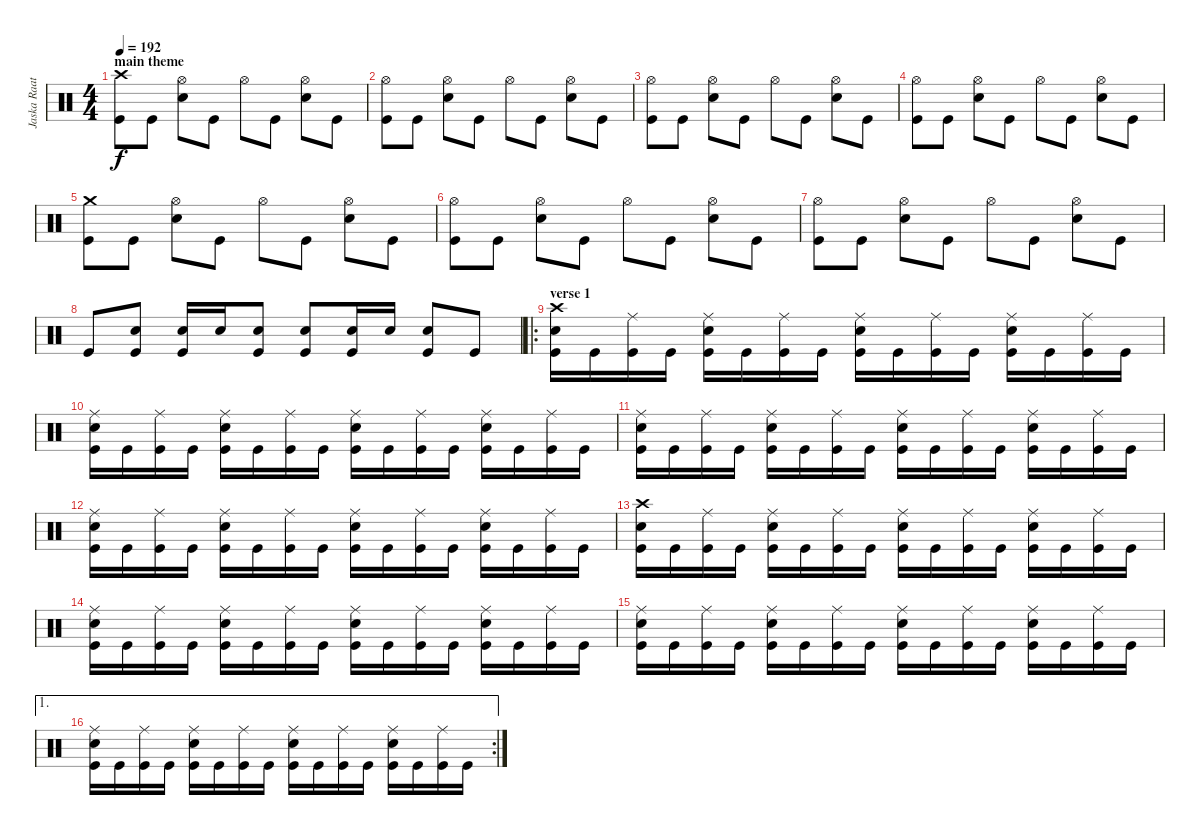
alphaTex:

\track ("Jaska Raatikainen" "Jaska Raat") {instrument percussion}
\staff {score}
\articulation defaults
\ts (4 4)
\section ("" "main theme")
\tempo 192
\clef neutral
\ks c
("Crash high (hit)" "Kick (hit)").8{dy f} "Kick (hit)".8 ("Hi-Hat (open)" "Electric Snare (hit)").8 "Kick (hit)".8 "Hi-Hat (open)".8 "Kick (hit)".8 ("Hi-Hat (open)" "Electric Snare (hit)").8 "Kick (hit)".8 |
("Hi-Hat (open)" "Kick (hit)").8 "Kick (hit)".8 ("Hi-Hat (open)" "Electric Snare (hit)").8 "Kick (hit)".8 "Hi-Hat (open)".8 "Kick (hit)".8 ("Hi-Hat (open)" "Electric Snare (hit)").8 "Kick (hit)".8 |
("Hi-Hat (open)" "Kick (hit)").8 "Kick (hit)".8 ("Hi-Hat (open)" "Electric Snare (hit)").8 "Kick (hit)".8 "Hi-Hat (open)".8 "Kick (hit)".8 ("Hi-Hat (open)" "Electric Snare (hit)").8 "Kick (hit)".8 |
("Hi-Hat (open)" "Kick (hit)").8 "Kick (hit)".8 ("Hi-Hat (open)" "Electric Snare (hit)").8 "Kick (hit)".8 "Hi-Hat (open)".8 "Kick (hit)".8 ("Hi-Hat (open)" "Electric Snare (hit)").8 "Kick (hit)".8 |
("Crash medium (hit)" "Kick (hit)").8 "Kick (hit)".8 ("Hi-Hat (open)" "Electric Snare (hit)").8 "Kick (hit)".8 "Hi-Hat (open)".8 "Kick (hit)".8 ("Hi-Hat (open)" "Electric Snare (hit)").8 "Kick (hit)".8 |
("Hi-Hat (open)" "Kick (hit)").8 "Kick (hit)".8 ("Hi-Hat (open)" "Electric Snare (hit)").8 "Kick (hit)".8 "Hi-Hat (open)".8 "Kick (hit)".8 ("Hi-Hat (open)" "Electric Snare (hit)").8 "Kick (hit)".8 |
("Hi-Hat (open)" "Kick (hit)").8 "Kick (hit)".8 ("Hi-Hat (open)" "Electric Snare (hit)").8 "Kick (hit)".8 "Hi-Hat (open)".8 "Kick (hit)".8 ("Hi-Hat (open)" "Electric Snare (hit)").8 "Kick (hit)".8 |
"Kick (hit)".8 ("Electric Snare (hit)" "Kick (hit)").8 ("Electric Snare (hit)" "Kick (hit)").16 "Electric Snare (hit)".16 ("Electric Snare (hit)" "Kick (hit)").8 ("Electric Snare (hit)" "Kick (hit)").8 ("Electric Snare (hit)" "Kick (hit)").16 "Electric Snare (hit)".16 ("Electric Snare (hit)" "Kick (hit)").8 "Kick (hit)".8 |
\ro
\section ("" "verse 1")
("Crash high (hit)" "Electric Snare (hit)" "Kick (hit)").16 "Kick (hit)".16 ("Ride (middle)" "Kick (hit)").16 "Kick (hit)".16 ("Ride (middle)" "Electric Snare (hit)" "Kick (hit)").16 "Kick (hit)".16 ("Ride (middle)" "Kick (hit)").16 "Kick (hit)".16 ("Ride (middle)" "Electric Snare (hit)" "Kick (hit)").16 "Kick (hit)".16 ("Ride (middle)" "Kick (hit)").16 "Kick (hit)".16 ("Ride (middle)" "Electric Snare (hit)" "Kick (hit)").16 "Kick (hit)".16 ("Ride (middle)" "Kick (hit)").16 "Kick (hit)".16 |
("Ride (middle)" "Electric Snare (hit)" "Kick (hit)").16 "Kick (hit)".16 ("Ride (middle)" "Kick (hit)").16 "Kick (hit)".16 ("Ride (middle)" "Electric Snare (hit)" "Kick (hit)").16 "Kick (hit)".16 ("Ride (middle)" "Kick (hit)").16 "Kick (hit)".16 ("Ride (middle)" "Electric Snare (hit)" "Kick (hit)").16 "Kick (hit)".16 ("Ride (middle)" "Kick (hit)").16 "Kick (hit)".16 ("Ride (middle)" "Electric Snare (hit)" "Kick (hit)").16 "Kick (hit)".16 ("Ride (middle)" "Kick (hit)").16 "Kick (hit)".16 |
("Ride (middle)" "Electric Snare (hit)" "Kick (hit)").16 "Kick (hit)".16 ("Ride (middle)" "Kick (hit)").16 "Kick (hit)".16 ("Ride (middle)" "Electric Snare (hit)" "Kick (hit)").16 "Kick (hit)".16 ("Ride (middle)" "Kick (hit)").16 "Kick (hit)".16 ("Ride (middle)" "Electric Snare (hit)" "Kick (hit)").16 "Kick (hit)".16 ("Ride (middle)" "Kick (hit)").16 "Kick (hit)".16 ("Ride (middle)" "Electric Snare (hit)" "Kick (hit)").16 "Kick (hit)".16 ("Ride (middle)" "Kick (hit)").16 "Kick (hit)".16 |
("Ride (middle)" "Electric Snare (hit)" "Kick (hit)").16 "Kick (hit)".16 ("Ride (middle)" "Kick (hit)").16 "Kick (hit)".16 ("Ride (middle)" "Electric Snare (hit)" "Kick (hit)").16 "Kick (hit)".16 ("Ride (middle)" "Kick (hit)").16 "Kick (hit)".16 ("Ride (middle)" "Electric Snare (hit)" "Kick (hit)").16 "Kick (hit)".16 ("Ride (middle)" "Kick (hit)").16 "Kick (hit)".16 ("Ride (middle)" "Electric Snare (hit)" "Kick (hit)").16 "Kick (hit)".16 ("Ride (middle)" "Kick (hit)").16 "Kick (hit)".16 |
("Crash high (hit)" "Electric Snare (hit)" "Kick (hit)").16 "Kick (hit)".16 ("Ride (middle)" "Kick (hit)").16 "Kick (hit)".16 ("Ride (middle)" "Electric Snare (hit)" "Kick (hit)").16 "Kick (hit)".16 ("Ride (middle)" "Kick (hit)").16 "Kick (hit)".16 ("Ride (middle)" "Electric Snare (hit)" "Kick (hit)").16 "Kick (hit)".16 ("Ride (middle)" "Kick (hit)").16 "Kick (hit)".16 ("Ride (middle)" "Electric Snare (hit)" "Kick (hit)").16 "Kick (hit)".16 ("Ride (middle)" "Kick (hit)").16 "Kick (hit)".16 |
("Ride (middle)" "Electric Snare (hit)" "Kick (hit)").16 "Kick (hit)".16 ("Ride (middle)" "Kick (hit)").16 "Kick (hit)".16 ("Ride (middle)" "Electric Snare (hit)" "Kick (hit)").16 "Kick (hit)".16 ("Ride (middle)" "Kick (hit)").16 "Kick (hit)".16 ("Ride (middle)" "Electric Snare (hit)" "Kick (hit)").16 "Kick (hit)".16 ("Ride (middle)" "Kick (hit)").16 "Kick (hit)".16 ("Ride (middle)" "Electric Snare (hit)" "Kick (hit)").16 "Kick (hit)".16 ("Ride (middle)" "Kick (hit)").16 "Kick (hit)".16 |
("Ride (middle)" "Electric Snare (hit)" "Kick (hit)").16 "Kick (hit)".16 ("Ride (middle)" "Kick (hit)").16 "Kick (hit)".16 ("Ride (middle)" "Electric Snare (hit)" "Kick (hit)").16 "Kick (hit)".16 ("Ride (middle)" "Kick (hit)").16 "Kick (hit)".16 ("Ride (middle)" "Electric Snare (hit)" "Kick (hit)").16 "Kick (hit)".16 ("Ride (middle)" "Kick (hit)").16 "Kick (hit)".16 ("Ride (middle)" "Electric Snare (hit)" "Kick (hit)").16 "Kick (hit)".16 ("Ride (middle)" "Kick (hit)").16 "Kick (hit)".16 |
\ae 1
\rc 2
("Ride (middle)" "Electric Snare (hit)" "Kick (hit)").16 "Kick (hit)".16 ("Ride (middle)" "Kick (hit)").16 "Kick (hit)".16 ("Ride (middle)" "Electric Snare (hit)" "Kick (hit)").16 "Kick (hit)".16 ("Ride (middle)" "Kick (hit)").16 "Kick (hit)".16 ("Ride (middle)" "Electric Snare (hit)" "Kick (hit)").16 "Kick (hit)".16 ("Ride (middle)" "Kick (hit)").16 "Kick (hit)".16 ("Ride (middle)" "Electric Snare (hit)" "Kick (hit)").16 "Kick (hit)".16 ("Ride (middle)" "Kick (hit)").16 "Kick (hit)".16
